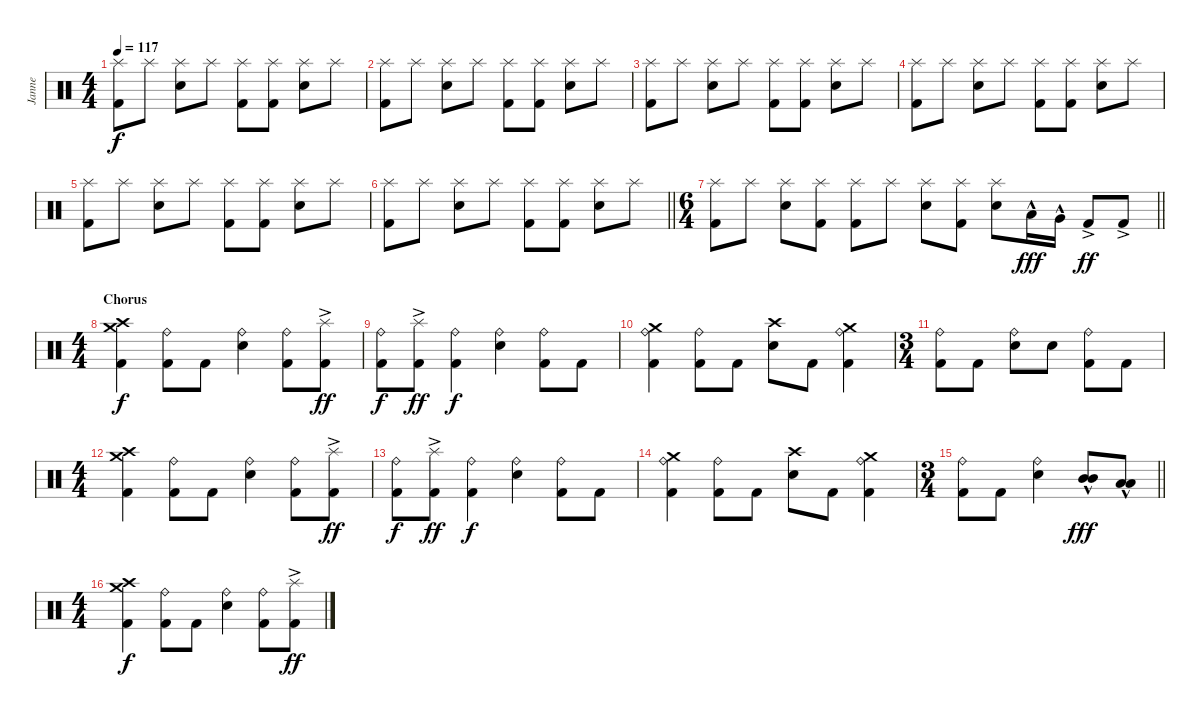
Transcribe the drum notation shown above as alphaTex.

\track ("Janne" "Janne") {instrument percussion}
\staff {score}
\articulation defaults
\ts (4 4)
\tempo 117
\clef neutral
\ks c
("Kick (hit) 2" "Splash (hit)").8{dy f} "Splash (hit)".8 ("Snare (hit) 2" "Splash (hit)").8 "Splash (hit)".8 ("Kick (hit) 2" "Splash (hit)").8 ("Kick (hit) 2" "Splash (hit)").8 ("Snare (hit) 2" "Splash (hit)").8 "Splash (hit)".8 |
("Kick (hit) 2" "Splash (hit)").8 "Splash (hit)".8 ("Snare (hit) 2" "Splash (hit)").8 "Splash (hit)".8 ("Kick (hit) 2" "Splash (hit)").8 ("Kick (hit) 2" "Splash (hit)").8 ("Snare (hit) 2" "Splash (hit)").8 "Splash (hit)".8 |
("Kick (hit) 2" "Splash (hit)").8 "Splash (hit)".8 ("Snare (hit) 2" "Splash (hit)").8 "Splash (hit)".8 ("Kick (hit) 2" "Splash (hit)").8 ("Kick (hit) 2" "Splash (hit)").8 ("Snare (hit) 2" "Splash (hit)").8 "Splash (hit)".8 |
("Kick (hit) 2" "Splash (hit)").8 "Splash (hit)".8 ("Snare (hit) 2" "Splash (hit)").8 "Splash (hit)".8 ("Kick (hit) 2" "Splash (hit)").8 ("Kick (hit) 2" "Splash (hit)").8 ("Snare (hit) 2" "Splash (hit)").8 "Splash (hit)".8 |
("Kick (hit) 2" "Splash (hit)").8 "Splash (hit)".8 ("Snare (hit) 2" "Splash (hit)").8 "Splash (hit)".8 ("Kick (hit) 2" "Splash (hit)").8 ("Kick (hit) 2" "Splash (hit)").8 ("Snare (hit) 2" "Splash (hit)").8 "Splash (hit)".8 |
\barLineRight lightlight
("Kick (hit) 2" "Splash (hit)").8 "Splash (hit)".8 ("Snare (hit) 2" "Splash (hit)").8 "Splash (hit)".8 ("Kick (hit) 2" "Splash (hit)").8 ("Kick (hit) 2" "Splash (hit)").8 ("Snare (hit) 2" "Splash (hit)").8 "Splash (hit)".8 |
\ts (6 4)
\section ("" "")
\barLineRight lightlight
("Kick (hit) 2" "Splash (hit)").8 "Splash (hit)".8 ("Snare (hit) 2" "Splash (hit)").8 ("Kick (hit) 2" "Splash (hit)").8 ("Kick (hit) 2" "Splash (hit)").8 "Splash (hit)".8 ("Snare (hit) 2" "Splash (hit)").8 ("Kick (hit) 2" "Splash (hit)").8 ("Snare (hit) 2" "Splash (hit)").8 "Low Tom (hit)"{hac}.16{dy fff} "Very Low Tom (hit)"{hac}.16 "Kick (hit) 2"{ac}.8{dy ff} "Kick (hit) 2"{ac}.8 |
\ts (4 4)
\section ("" "Chorus")
("Kick (hit) 2" "Crash medium (hit)" "Crash high (hit)").4{dy f} ("Kick (hit) 2" "Ride (bell)").8 "Kick (hit) 2".8 ("Snare (hit) 2" "Ride (bell)").4 ("Kick (hit) 2" "Ride (bell)").8 ("Kick (hit) 2" "Splash (hit)"{ac}).8{dy ff} |
("Kick (hit) 2" "Ride (bell)").8{dy f} ("Kick (hit) 2" "Splash (hit)"{ac}).8{dy ff} ("Kick (hit) 2" "Ride (bell)").4{dy f} ("Snare (hit) 2" "Ride (bell)").4 ("Kick (hit) 2" "Ride (bell)").8 "Kick (hit) 2".8 |
("Kick (hit) 2" "Ride (bell)" "Crash medium (hit)").4 ("Kick (hit) 2" "Ride (bell)").8 "Kick (hit) 2".8 ("Snare (hit) 2" "Crash high (hit)").8 "Kick (hit) 2".8 ("Kick (hit) 2" "Ride (bell)" "Crash medium (hit)").4 |
\ts (3 4)
("Kick (hit) 2" "Ride (bell)").8 "Kick (hit) 2".8 ("Snare (hit) 2" "Ride (bell)").8 "Snare (hit) 2".8 ("Kick (hit) 2" "Ride (bell)").8 "Kick (hit) 2".8 |
\ts (4 4)
("Kick (hit) 2" "Crash medium (hit)" "Crash high (hit)").4 ("Kick (hit) 2" "Ride (bell)").8 "Kick (hit) 2".8 ("Snare (hit) 2" "Ride (bell)").4 ("Kick (hit) 2" "Ride (bell)").8 ("Kick (hit) 2" "Splash (hit)"{ac}).8{dy ff} |
("Kick (hit) 2" "Ride (bell)").8{dy f} ("Kick (hit) 2" "Splash (hit)"{ac}).8{dy ff} ("Kick (hit) 2" "Ride (bell)").4{dy f} ("Snare (hit) 2" "Ride (bell)").4 ("Kick (hit) 2" "Ride (bell)").8 "Kick (hit) 2".8 |
("Kick (hit) 2" "Ride (bell)" "Crash medium (hit)").4 ("Kick (hit) 2" "Ride (bell)").8 "Kick (hit) 2".8 ("Snare (hit) 2" "Crash high (hit)").8 "Kick (hit) 2".8 ("Kick (hit) 2" "Ride (bell)" "Crash medium (hit)").4 |
\ts (3 4)
\barLineRight lightlight
("Kick (hit) 2" "Ride (bell)").8 "Kick (hit) 2".8 ("Snare (hit) 2" "Ride (bell)").4 ("Mid Tom (hit)"{hac} "Mid Tom (hit)"{hac}).8{dy fff} ("Low Tom (hit)"{hac} "Low Tom (hit)"{hac}).8 |
\ts (4 4)
\section ("" "")
("Kick (hit) 2" "Crash medium (hit)" "Crash high (hit)").4{dy f} ("Kick (hit) 2" "Ride (bell)").8 "Kick (hit) 2".8 ("Snare (hit) 2" "Ride (bell)").4 ("Kick (hit) 2" "Ride (bell)").8 ("Kick (hit) 2" "Splash (hit)"{ac}).8{dy ff}
